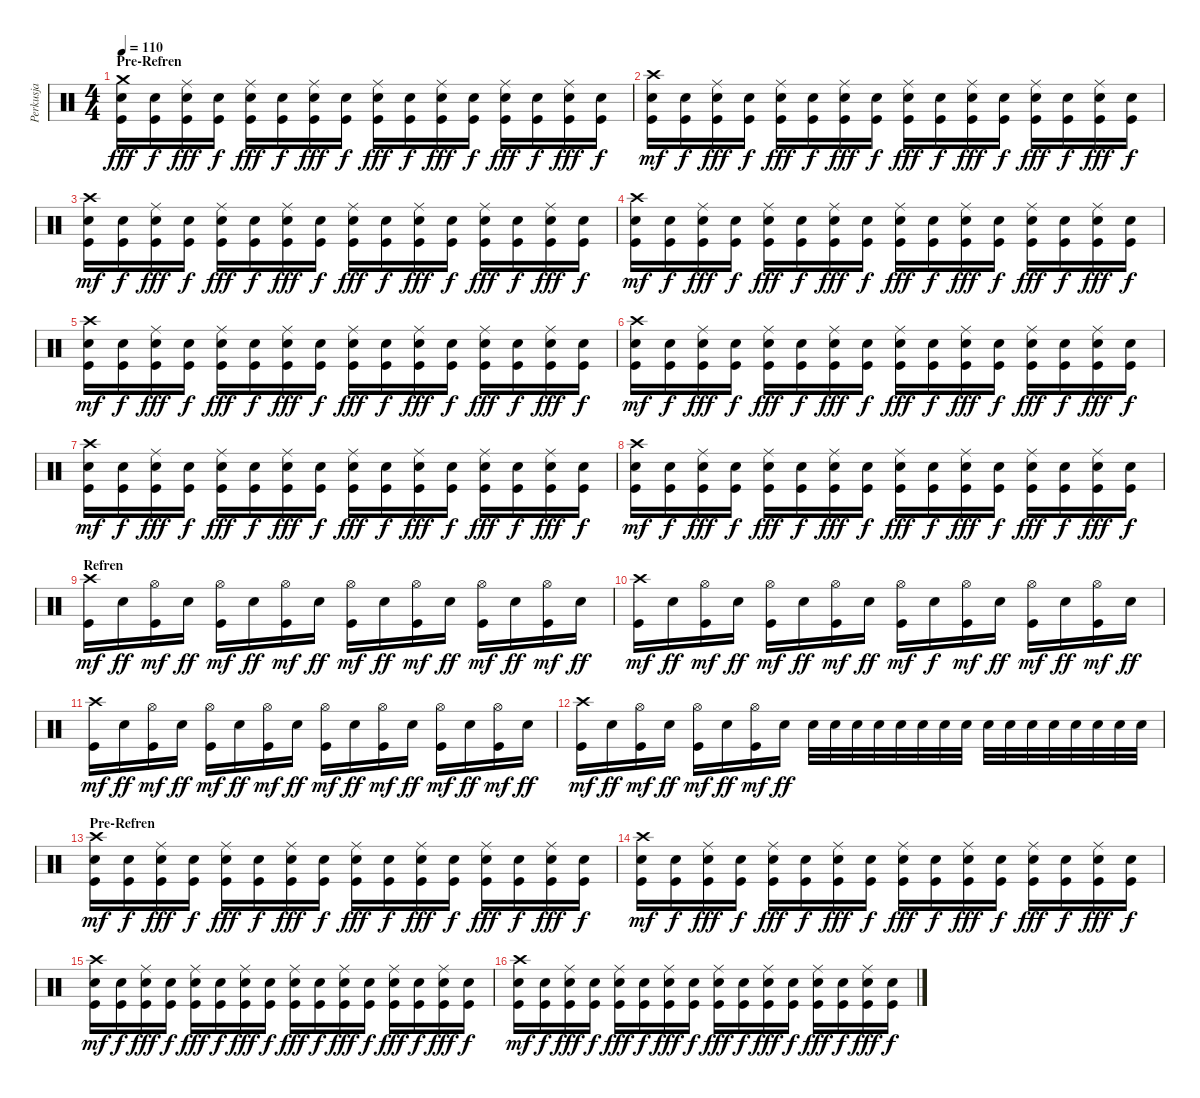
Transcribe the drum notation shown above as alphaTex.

\track ("Perkusja" "Perkusja") {instrument percussion}
\staff {score}
\articulation defaults
\ts (4 4)
\section ("" "Pre-Refren")
\tempo 110
\clef neutral
\ks c
("Crash medium (hit)" "Snare (hit) 2" "Kick (hit)").16{dy fff} ("Snare (hit) 2" "Kick (hit)").16{dy f} ("Ride (middle)" "Snare (hit) 2" "Kick (hit)").16{dy fff} ("Snare (hit) 2" "Kick (hit)").16{dy f} ("Ride (middle)" "Snare (hit) 2" "Kick (hit)").16{dy fff} ("Snare (hit) 2" "Kick (hit)").16{dy f} ("Ride (middle)" "Snare (hit) 2" "Kick (hit)").16{dy fff} ("Snare (hit) 2" "Kick (hit)").16{dy f} ("Ride (middle)" "Snare (hit) 2" "Kick (hit)").16{dy fff} ("Snare (hit) 2" "Kick (hit)").16{dy f} ("Ride (middle)" "Snare (hit) 2" "Kick (hit)").16{dy fff} ("Snare (hit) 2" "Kick (hit)").16{dy f} ("Ride (middle)" "Snare (hit) 2" "Kick (hit)").16{dy fff} ("Snare (hit) 2" "Kick (hit)").16{dy f} ("Ride (middle)" "Snare (hit) 2" "Kick (hit)").16{dy fff} ("Snare (hit) 2" "Kick (hit)").16{dy f} |
("Crash high (hit)" "Snare (hit) 2" "Kick (hit)").16{dy mf} ("Snare (hit) 2" "Kick (hit)").16{dy f} ("Ride (middle)" "Snare (hit) 2" "Kick (hit)").16{dy fff} ("Snare (hit) 2" "Kick (hit)").16{dy f} ("Ride (middle)" "Snare (hit) 2" "Kick (hit)").16{dy fff} ("Snare (hit) 2" "Kick (hit)").16{dy f} ("Ride (middle)" "Snare (hit) 2" "Kick (hit)").16{dy fff} ("Snare (hit) 2" "Kick (hit)").16{dy f} ("Ride (middle)" "Snare (hit) 2" "Kick (hit)").16{dy fff} ("Snare (hit) 2" "Kick (hit)").16{dy f} ("Ride (middle)" "Snare (hit) 2" "Kick (hit)").16{dy fff} ("Snare (hit) 2" "Kick (hit)").16{dy f} ("Ride (middle)" "Snare (hit) 2" "Kick (hit)").16{dy fff} ("Snare (hit) 2" "Kick (hit)").16{dy f} ("Ride (middle)" "Snare (hit) 2" "Kick (hit)").16{dy fff} ("Snare (hit) 2" "Kick (hit)").16{dy f} |
("Crash high (hit)" "Snare (hit) 2" "Kick (hit)").16{dy mf} ("Snare (hit) 2" "Kick (hit)").16{dy f} ("Ride (middle)" "Snare (hit) 2" "Kick (hit)").16{dy fff} ("Snare (hit) 2" "Kick (hit)").16{dy f} ("Ride (middle)" "Snare (hit) 2" "Kick (hit)").16{dy fff} ("Snare (hit) 2" "Kick (hit)").16{dy f} ("Ride (middle)" "Snare (hit) 2" "Kick (hit)").16{dy fff} ("Snare (hit) 2" "Kick (hit)").16{dy f} ("Ride (middle)" "Snare (hit) 2" "Kick (hit)").16{dy fff} ("Snare (hit) 2" "Kick (hit)").16{dy f} ("Ride (middle)" "Snare (hit) 2" "Kick (hit)").16{dy fff} ("Snare (hit) 2" "Kick (hit)").16{dy f} ("Ride (middle)" "Snare (hit) 2" "Kick (hit)").16{dy fff} ("Snare (hit) 2" "Kick (hit)").16{dy f} ("Ride (middle)" "Snare (hit) 2" "Kick (hit)").16{dy fff} ("Snare (hit) 2" "Kick (hit)").16{dy f} |
("Crash high (hit)" "Snare (hit) 2" "Kick (hit)").16{dy mf} ("Snare (hit) 2" "Kick (hit)").16{dy f} ("Ride (middle)" "Snare (hit) 2" "Kick (hit)").16{dy fff} ("Snare (hit) 2" "Kick (hit)").16{dy f} ("Ride (middle)" "Snare (hit) 2" "Kick (hit)").16{dy fff} ("Snare (hit) 2" "Kick (hit)").16{dy f} ("Ride (middle)" "Snare (hit) 2" "Kick (hit)").16{dy fff} ("Snare (hit) 2" "Kick (hit)").16{dy f} ("Ride (middle)" "Snare (hit) 2" "Kick (hit)").16{dy fff} ("Snare (hit) 2" "Kick (hit)").16{dy f} ("Ride (middle)" "Snare (hit) 2" "Kick (hit)").16{dy fff} ("Snare (hit) 2" "Kick (hit)").16{dy f} ("Ride (middle)" "Snare (hit) 2" "Kick (hit)").16{dy fff} ("Snare (hit) 2" "Kick (hit)").16{dy f} ("Ride (middle)" "Snare (hit) 2" "Kick (hit)").16{dy fff} ("Snare (hit) 2" "Kick (hit)").16{dy f} |
("Crash high (hit)" "Snare (hit) 2" "Kick (hit)").16{dy mf} ("Snare (hit) 2" "Kick (hit)").16{dy f} ("Ride (middle)" "Snare (hit) 2" "Kick (hit)").16{dy fff} ("Snare (hit) 2" "Kick (hit)").16{dy f} ("Ride (middle)" "Snare (hit) 2" "Kick (hit)").16{dy fff} ("Snare (hit) 2" "Kick (hit)").16{dy f} ("Ride (middle)" "Snare (hit) 2" "Kick (hit)").16{dy fff} ("Snare (hit) 2" "Kick (hit)").16{dy f} ("Ride (middle)" "Snare (hit) 2" "Kick (hit)").16{dy fff} ("Snare (hit) 2" "Kick (hit)").16{dy f} ("Ride (middle)" "Snare (hit) 2" "Kick (hit)").16{dy fff} ("Snare (hit) 2" "Kick (hit)").16{dy f} ("Ride (middle)" "Snare (hit) 2" "Kick (hit)").16{dy fff} ("Snare (hit) 2" "Kick (hit)").16{dy f} ("Ride (middle)" "Snare (hit) 2" "Kick (hit)").16{dy fff} ("Snare (hit) 2" "Kick (hit)").16{dy f} |
("Crash high (hit)" "Snare (hit) 2" "Kick (hit)").16{dy mf} ("Snare (hit) 2" "Kick (hit)").16{dy f} ("Ride (middle)" "Snare (hit) 2" "Kick (hit)").16{dy fff} ("Snare (hit) 2" "Kick (hit)").16{dy f} ("Ride (middle)" "Snare (hit) 2" "Kick (hit)").16{dy fff} ("Snare (hit) 2" "Kick (hit)").16{dy f} ("Ride (middle)" "Snare (hit) 2" "Kick (hit)").16{dy fff} ("Snare (hit) 2" "Kick (hit)").16{dy f} ("Ride (middle)" "Snare (hit) 2" "Kick (hit)").16{dy fff} ("Snare (hit) 2" "Kick (hit)").16{dy f} ("Ride (middle)" "Snare (hit) 2" "Kick (hit)").16{dy fff} ("Snare (hit) 2" "Kick (hit)").16{dy f} ("Ride (middle)" "Snare (hit) 2" "Kick (hit)").16{dy fff} ("Snare (hit) 2" "Kick (hit)").16{dy f} ("Ride (middle)" "Snare (hit) 2" "Kick (hit)").16{dy fff} ("Snare (hit) 2" "Kick (hit)").16{dy f} |
("Crash high (hit)" "Snare (hit) 2" "Kick (hit)").16{dy mf} ("Snare (hit) 2" "Kick (hit)").16{dy f} ("Ride (middle)" "Snare (hit) 2" "Kick (hit)").16{dy fff} ("Snare (hit) 2" "Kick (hit)").16{dy f} ("Ride (middle)" "Snare (hit) 2" "Kick (hit)").16{dy fff} ("Snare (hit) 2" "Kick (hit)").16{dy f} ("Ride (middle)" "Snare (hit) 2" "Kick (hit)").16{dy fff} ("Snare (hit) 2" "Kick (hit)").16{dy f} ("Ride (middle)" "Snare (hit) 2" "Kick (hit)").16{dy fff} ("Snare (hit) 2" "Kick (hit)").16{dy f} ("Ride (middle)" "Snare (hit) 2" "Kick (hit)").16{dy fff} ("Snare (hit) 2" "Kick (hit)").16{dy f} ("Ride (middle)" "Snare (hit) 2" "Kick (hit)").16{dy fff} ("Snare (hit) 2" "Kick (hit)").16{dy f} ("Ride (middle)" "Snare (hit) 2" "Kick (hit)").16{dy fff} ("Snare (hit) 2" "Kick (hit)").16{dy f} |
("Crash high (hit)" "Snare (hit) 2" "Kick (hit)").16{dy mf} ("Snare (hit) 2" "Kick (hit)").16{dy f} ("Ride (middle)" "Snare (hit) 2" "Kick (hit)").16{dy fff} ("Snare (hit) 2" "Kick (hit)").16{dy f} ("Ride (middle)" "Snare (hit) 2" "Kick (hit)").16{dy fff} ("Snare (hit) 2" "Kick (hit)").16{dy f} ("Ride (middle)" "Snare (hit) 2" "Kick (hit)").16{dy fff} ("Snare (hit) 2" "Kick (hit)").16{dy f} ("Ride (middle)" "Snare (hit) 2" "Kick (hit)").16{dy fff} ("Snare (hit) 2" "Kick (hit)").16{dy f} ("Ride (middle)" "Snare (hit) 2" "Kick (hit)").16{dy fff} ("Snare (hit) 2" "Kick (hit)").16{dy f} ("Ride (middle)" "Snare (hit) 2" "Kick (hit)").16{dy fff} ("Snare (hit) 2" "Kick (hit)").16{dy f} ("Ride (middle)" "Snare (hit) 2" "Kick (hit)").16{dy fff} ("Snare (hit) 2" "Kick (hit)").16{dy f} |
\section ("" "Refren")
("Crash high (hit)" "Kick (hit)").16{dy mf} "Snare (hit) 2".16{dy ff} ("Hi-Hat (open)" "Kick (hit)").16{dy mf} "Snare (hit) 2".16{dy ff} ("Hi-Hat (open)" "Kick (hit)").16{dy mf} "Snare (hit) 2".16{dy ff} ("Hi-Hat (open)" "Kick (hit)").16{dy mf} "Snare (hit) 2".16{dy ff} ("Hi-Hat (open)" "Kick (hit)").16{dy mf} "Snare (hit) 2".16{dy ff} ("Hi-Hat (open)" "Kick (hit)").16{dy mf} "Snare (hit) 2".16{dy ff} ("Hi-Hat (open)" "Kick (hit)").16{dy mf} "Snare (hit) 2".16{dy ff} ("Hi-Hat (open)" "Kick (hit)").16{dy mf} "Snare (hit) 2".16{dy ff} |
("Crash high (hit)" "Kick (hit)").16{dy mf} "Snare (hit) 2".16{dy ff} ("Hi-Hat (open)" "Kick (hit)").16{dy mf} "Snare (hit) 2".16{dy ff} ("Hi-Hat (open)" "Kick (hit)").16{dy mf} "Snare (hit) 2".16{dy ff} ("Hi-Hat (open)" "Kick (hit)").16{dy mf} "Snare (hit) 2".16{dy ff} ("Hi-Hat (open)" "Kick (hit)").16{dy mf} "Snare (hit) 2".16{dy f} ("Hi-Hat (open)" "Kick (hit)").16{dy mf} "Snare (hit) 2".16{dy ff} ("Hi-Hat (open)" "Kick (hit)").16{dy mf} "Snare (hit) 2".16{dy ff} ("Hi-Hat (open)" "Kick (hit)").16{dy mf} "Snare (hit) 2".16{dy ff} |
("Crash high (hit)" "Kick (hit)").16{dy mf} "Snare (hit) 2".16{dy ff} ("Hi-Hat (open)" "Kick (hit)").16{dy mf} "Snare (hit) 2".16{dy ff} ("Hi-Hat (open)" "Kick (hit)").16{dy mf} "Snare (hit) 2".16{dy ff} ("Hi-Hat (open)" "Kick (hit)").16{dy mf} "Snare (hit) 2".16{dy ff} ("Hi-Hat (open)" "Kick (hit)").16{dy mf} "Snare (hit) 2".16{dy ff} ("Hi-Hat (open)" "Kick (hit)").16{dy mf} "Snare (hit) 2".16{dy ff} ("Hi-Hat (open)" "Kick (hit)").16{dy mf} "Snare (hit) 2".16{dy ff} ("Hi-Hat (open)" "Kick (hit)").16{dy mf} "Snare (hit) 2".16{dy ff} |
("Crash high (hit)" "Kick (hit)").16{dy mf} "Snare (hit) 2".16{dy ff} ("Hi-Hat (open)" "Kick (hit)").16{dy mf} "Snare (hit) 2".16{dy ff} ("Hi-Hat (open)" "Kick (hit)").16{dy mf} "Snare (hit) 2".16{dy ff} ("Hi-Hat (open)" "Kick (hit)").16{dy mf} "Snare (hit) 2".16{dy ff} "Snare (hit) 2".32 "Snare (hit) 2".32 "Snare (hit) 2".32 "Snare (hit) 2".32 "Snare (hit) 2".32 "Snare (hit) 2".32 "Snare (hit) 2".32 "Snare (hit) 2".32 "Snare (hit) 2".32 "Snare (hit) 2".32 "Snare (hit) 2".32 "Snare (hit) 2".32 "Snare (hit) 2".32 "Snare (hit) 2".32 "Snare (hit) 2".32 "Snare (hit) 2".32 |
\section ("" "Pre-Refren")
("Crash high (hit)" "Snare (hit) 2" "Kick (hit)").16{dy mf} ("Snare (hit) 2" "Kick (hit)").16{dy f} ("Ride (middle)" "Snare (hit) 2" "Kick (hit)").16{dy fff} ("Snare (hit) 2" "Kick (hit)").16{dy f} ("Ride (middle)" "Snare (hit) 2" "Kick (hit)").16{dy fff} ("Snare (hit) 2" "Kick (hit)").16{dy f} ("Ride (middle)" "Snare (hit) 2" "Kick (hit)").16{dy fff} ("Snare (hit) 2" "Kick (hit)").16{dy f} ("Ride (middle)" "Snare (hit) 2" "Kick (hit)").16{dy fff} ("Snare (hit) 2" "Kick (hit)").16{dy f} ("Ride (middle)" "Snare (hit) 2" "Kick (hit)").16{dy fff} ("Snare (hit) 2" "Kick (hit)").16{dy f} ("Ride (middle)" "Snare (hit) 2" "Kick (hit)").16{dy fff} ("Snare (hit) 2" "Kick (hit)").16{dy f} ("Ride (middle)" "Snare (hit) 2" "Kick (hit)").16{dy fff} ("Snare (hit) 2" "Kick (hit)").16{dy f} |
("Crash high (hit)" "Snare (hit) 2" "Kick (hit)").16{dy mf} ("Snare (hit) 2" "Kick (hit)").16{dy f} ("Ride (middle)" "Snare (hit) 2" "Kick (hit)").16{dy fff} ("Snare (hit) 2" "Kick (hit)").16{dy f} ("Ride (middle)" "Snare (hit) 2" "Kick (hit)").16{dy fff} ("Snare (hit) 2" "Kick (hit)").16{dy f} ("Ride (middle)" "Snare (hit) 2" "Kick (hit)").16{dy fff} ("Snare (hit) 2" "Kick (hit)").16{dy f} ("Ride (middle)" "Snare (hit) 2" "Kick (hit)").16{dy fff} ("Snare (hit) 2" "Kick (hit)").16{dy f} ("Ride (middle)" "Snare (hit) 2" "Kick (hit)").16{dy fff} ("Snare (hit) 2" "Kick (hit)").16{dy f} ("Ride (middle)" "Snare (hit) 2" "Kick (hit)").16{dy fff} ("Snare (hit) 2" "Kick (hit)").16{dy f} ("Ride (middle)" "Snare (hit) 2" "Kick (hit)").16{dy fff} ("Snare (hit) 2" "Kick (hit)").16{dy f} |
("Crash high (hit)" "Snare (hit) 2" "Kick (hit)").16{dy mf} ("Snare (hit) 2" "Kick (hit)").16{dy f} ("Ride (middle)" "Snare (hit) 2" "Kick (hit)").16{dy fff} ("Snare (hit) 2" "Kick (hit)").16{dy f} ("Ride (middle)" "Snare (hit) 2" "Kick (hit)").16{dy fff} ("Snare (hit) 2" "Kick (hit)").16{dy f} ("Ride (middle)" "Snare (hit) 2" "Kick (hit)").16{dy fff} ("Snare (hit) 2" "Kick (hit)").16{dy f} ("Ride (middle)" "Snare (hit) 2" "Kick (hit)").16{dy fff} ("Snare (hit) 2" "Kick (hit)").16{dy f} ("Ride (middle)" "Snare (hit) 2" "Kick (hit)").16{dy fff} ("Snare (hit) 2" "Kick (hit)").16{dy f} ("Ride (middle)" "Snare (hit) 2" "Kick (hit)").16{dy fff} ("Snare (hit) 2" "Kick (hit)").16{dy f} ("Ride (middle)" "Snare (hit) 2" "Kick (hit)").16{dy fff} ("Snare (hit) 2" "Kick (hit)").16{dy f} |
("Crash high (hit)" "Snare (hit) 2" "Kick (hit)").16{dy mf} ("Snare (hit) 2" "Kick (hit)").16{dy f} ("Ride (middle)" "Snare (hit) 2" "Kick (hit)").16{dy fff} ("Snare (hit) 2" "Kick (hit)").16{dy f} ("Ride (middle)" "Snare (hit) 2" "Kick (hit)").16{dy fff} ("Snare (hit) 2" "Kick (hit)").16{dy f} ("Ride (middle)" "Snare (hit) 2" "Kick (hit)").16{dy fff} ("Snare (hit) 2" "Kick (hit)").16{dy f} ("Ride (middle)" "Snare (hit) 2" "Kick (hit)").16{dy fff} ("Snare (hit) 2" "Kick (hit)").16{dy f} ("Ride (middle)" "Snare (hit) 2" "Kick (hit)").16{dy fff} ("Snare (hit) 2" "Kick (hit)").16{dy f} ("Ride (middle)" "Snare (hit) 2" "Kick (hit)").16{dy fff} ("Snare (hit) 2" "Kick (hit)").16{dy f} ("Ride (middle)" "Snare (hit) 2" "Kick (hit)").16{dy fff} ("Snare (hit) 2" "Kick (hit)").16{dy f}
